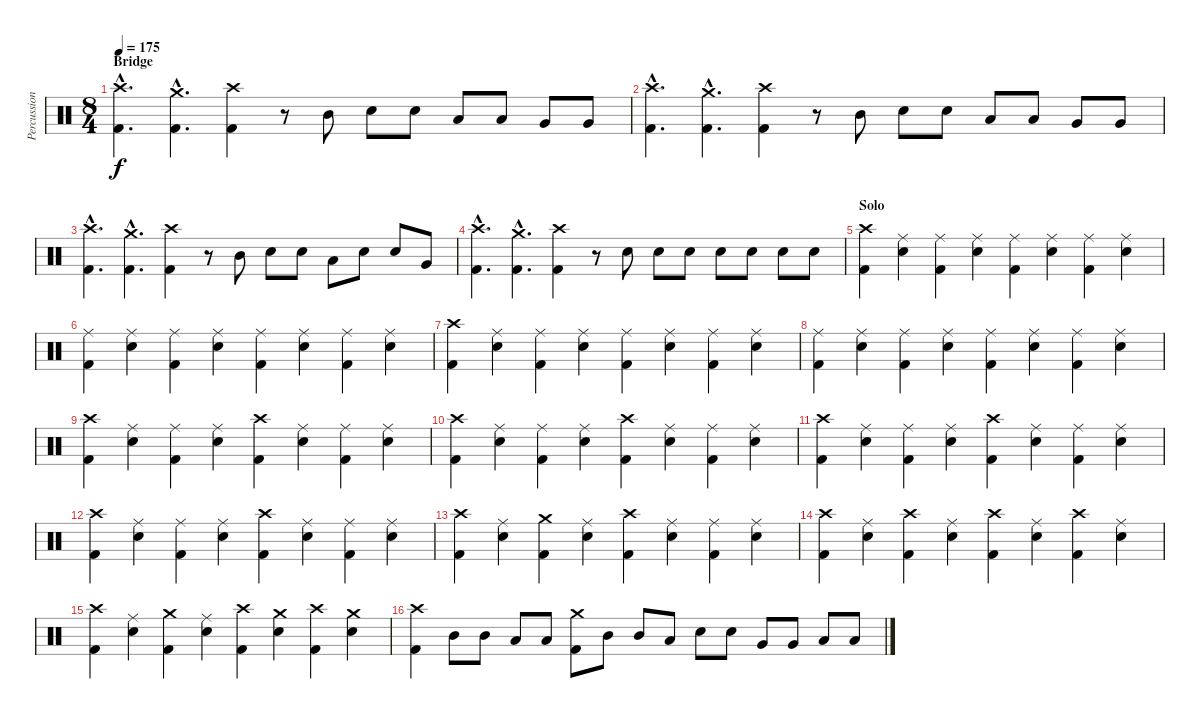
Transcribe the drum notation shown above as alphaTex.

\track ("Percussion" "Percussion") {instrument percussion}
\staff {score}
\articulation defaults
\ts (8 4)
\section ("" "Bridge")
\tempo 175
\clef neutral
\ks c
("Kick (hit) 2"{hac} "Crash high (hit)"{hac}).4{d dy f} ("Kick (hit) 2"{hac} "Crash medium (hit)"{hac}).4{d} ("Kick (hit) 2" "Crash high (hit)").4 r.8 "Mid Tom (hit)".8 "Electric Snare (hit)".8 "Electric Snare (hit)".8 "Low Tom (hit)".8 "Low Tom (hit)".8 "Very Low Tom (hit)".8 "Very Low Tom (hit)".8 |
("Kick (hit) 2"{hac} "Crash high (hit)"{hac}).4{d} ("Kick (hit) 2"{hac} "Crash medium (hit)"{hac}).4{d} ("Kick (hit) 2" "Crash high (hit)").4 r.8 "Mid Tom (hit)".8 "Electric Snare (hit)".8 "Electric Snare (hit)".8 "Low Tom (hit)".8 "Low Tom (hit)".8 "Very Low Tom (hit)".8 "Very Low Tom (hit)".8 |
("Kick (hit) 2"{hac} "Crash high (hit)"{hac}).4{d} ("Kick (hit) 2"{hac} "Crash medium (hit)"{hac}).4{d} ("Kick (hit) 2" "Crash high (hit)").4 r.8 "Mid Tom (hit)".8 "Electric Snare (hit)".8 "Electric Snare (hit)".8 "Low Tom (hit)".8 "Electric Snare (hit)".8 "Electric Snare (hit)".8 "Very Low Tom (hit)".8 |
("Kick (hit) 2"{hac} "Crash high (hit)"{hac}).4{d} ("Kick (hit) 2"{hac} "Crash medium (hit)"{hac}).4{d} ("Kick (hit) 2" "Crash high (hit)").4 r.8 "Electric Snare (hit)".8 "Electric Snare (hit)".8 "Electric Snare (hit)".8 "Electric Snare (hit)".8 "Electric Snare (hit)".8 "Electric Snare (hit)".8 "Electric Snare (hit)".8 |
\section ("" "Solo")
("Kick (hit) 2" "Crash high (hit)").4 ("Electric Snare (hit)" "Ride (middle)").4 ("Kick (hit) 2" "Ride (middle)").4 ("Electric Snare (hit)" "Ride (middle)").4 ("Kick (hit) 2" "Ride (middle)").4 ("Electric Snare (hit)" "Ride (middle)").4 ("Kick (hit) 2" "Ride (middle)").4 ("Electric Snare (hit)" "Ride (middle)").4 |
("Kick (hit) 2" "Ride (middle)").4 ("Electric Snare (hit)" "Ride (middle)").4 ("Kick (hit) 2" "Ride (middle)").4 ("Electric Snare (hit)" "Ride (middle)").4 ("Kick (hit) 2" "Ride (middle)").4 ("Electric Snare (hit)" "Ride (middle)").4 ("Kick (hit) 2" "Ride (middle)").4 ("Electric Snare (hit)" "Ride (middle)").4 |
("Kick (hit) 2" "Crash high (hit)").4 ("Electric Snare (hit)" "Ride (middle)").4 ("Kick (hit) 2" "Ride (middle)").4 ("Electric Snare (hit)" "Ride (middle)").4 ("Kick (hit) 2" "Ride (middle)").4 ("Electric Snare (hit)" "Ride (middle)").4 ("Kick (hit) 2" "Ride (middle)").4 ("Electric Snare (hit)" "Ride (middle)").4 |
("Kick (hit) 2" "Ride (middle)").4 ("Electric Snare (hit)" "Ride (middle)").4 ("Kick (hit) 2" "Ride (middle)").4 ("Electric Snare (hit)" "Ride (middle)").4 ("Kick (hit) 2" "Ride (middle)").4 ("Electric Snare (hit)" "Ride (middle)").4 ("Kick (hit) 2" "Ride (middle)").4 ("Electric Snare (hit)" "Ride (middle)").4 |
("Kick (hit) 2" "Crash high (hit)").4 ("Electric Snare (hit)" "Ride (middle)").4 ("Kick (hit) 2" "Ride (middle)").4 ("Electric Snare (hit)" "Ride (middle)").4 ("Kick (hit) 2" "Crash high (hit)").4 ("Electric Snare (hit)" "Ride (middle)").4 ("Kick (hit) 2" "Ride (middle)").4 ("Electric Snare (hit)" "Ride (middle)").4 |
("Kick (hit) 2" "Crash high (hit)").4 ("Electric Snare (hit)" "Ride (middle)").4 ("Kick (hit) 2" "Ride (middle)").4 ("Electric Snare (hit)" "Ride (middle)").4 ("Kick (hit) 2" "Crash high (hit)").4 ("Electric Snare (hit)" "Ride (middle)").4 ("Kick (hit) 2" "Ride (middle)").4 ("Electric Snare (hit)" "Ride (middle)").4 |
("Kick (hit) 2" "Crash high (hit)").4 ("Electric Snare (hit)" "Ride (middle)").4 ("Kick (hit) 2" "Ride (middle)").4 ("Electric Snare (hit)" "Ride (middle)").4 ("Kick (hit) 2" "Crash high (hit)").4 ("Electric Snare (hit)" "Ride (middle)").4 ("Kick (hit) 2" "Ride (middle)").4 ("Electric Snare (hit)" "Ride (middle)").4 |
("Kick (hit) 2" "Crash high (hit)").4 ("Electric Snare (hit)" "Ride (middle)").4 ("Kick (hit) 2" "Ride (middle)").4 ("Electric Snare (hit)" "Ride (middle)").4 ("Kick (hit) 2" "Crash high (hit)").4 ("Electric Snare (hit)" "Ride (middle)").4 ("Kick (hit) 2" "Ride (middle)").4 ("Electric Snare (hit)" "Ride (middle)").4 |
("Kick (hit) 2" "Crash high (hit)").4 ("Electric Snare (hit)" "Ride (middle)").4 ("Kick (hit) 2" "Crash medium (hit)").4 ("Electric Snare (hit)" "Ride (middle)").4 ("Kick (hit) 2" "Crash high (hit)").4 ("Electric Snare (hit)" "Ride (middle)").4 ("Kick (hit) 2" "Ride (middle)").4 ("Electric Snare (hit)" "Ride (middle)").4 |
("Kick (hit) 2" "Crash high (hit)").4 ("Electric Snare (hit)" "Ride (middle)").4 ("Kick (hit) 2" "Crash high (hit)").4 ("Electric Snare (hit)" "Ride (middle)").4 ("Kick (hit) 2" "Crash high (hit)").4 ("Electric Snare (hit)" "Ride (middle)").4 ("Kick (hit) 2" "Crash high (hit)").4 ("Electric Snare (hit)" "Ride (middle)").4 |
("Kick (hit) 2" "Crash high (hit)").4 ("Electric Snare (hit)" "Ride (middle)").4 ("Kick (hit) 2" "Crash medium (hit)").4 ("Electric Snare (hit)" "Ride (middle)").4 ("Kick (hit) 2" "Crash high (hit)").4 ("Electric Snare (hit)" "Crash medium (hit)").4 ("Kick (hit) 2" "Crash high (hit)").4 ("Electric Snare (hit)" "Crash medium (hit)").4 |
("Kick (hit) 2" "Crash high (hit)").4 "Mid Tom (hit)".8 "Mid Tom (hit)".8 "Low Tom (hit)".8 "Low Tom (hit)".8 ("Kick (hit) 2" "Crash medium (hit)").8 "Mid Tom (hit)".8 "Mid Tom (hit)".8 "Low Tom (hit)".8 "Electric Snare (hit)".8 "Electric Snare (hit)".8 "Very Low Tom (hit)".8 "Very Low Tom (hit)".8 "Low Floor Tom (hit)".8 "Low Floor Tom (hit)".8
